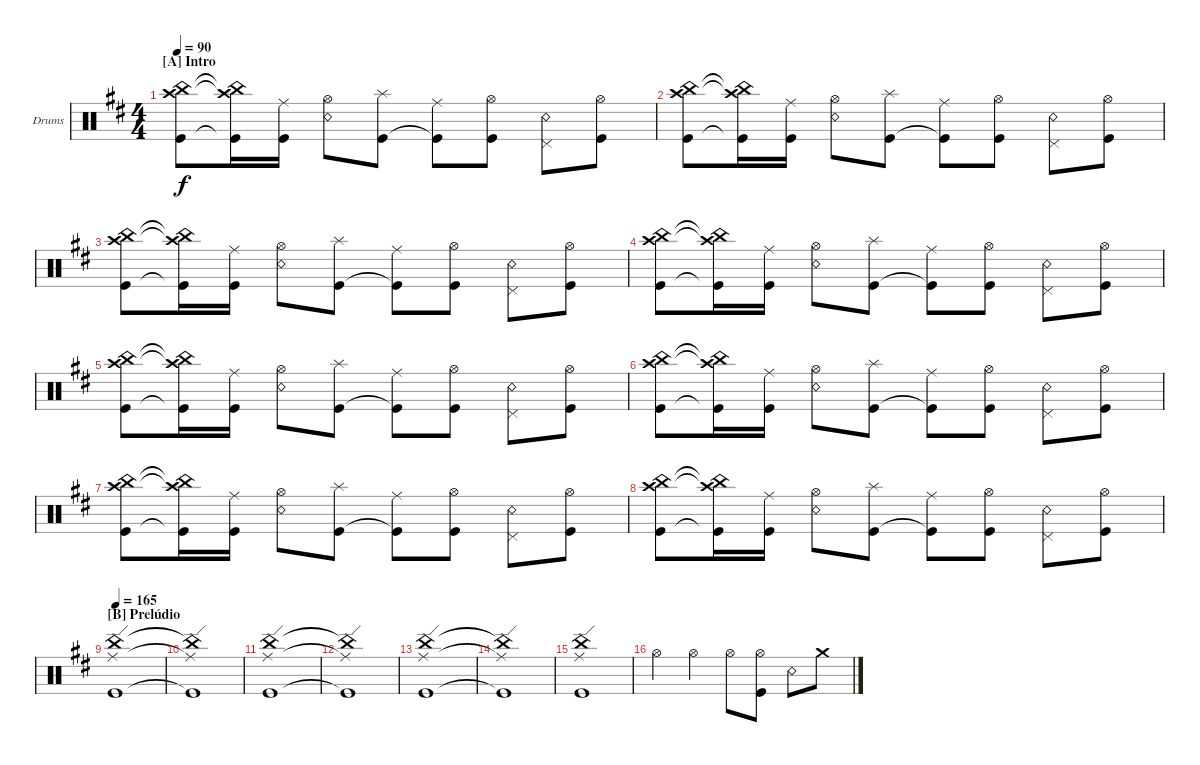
\defaultSystemsLayout 4
\bracketExtendMode groupsimilarinstruments
\firstSystemTrackNameOrientation horizontal
\otherSystemsTrackNameOrientation horizontal
\track ("Bateria" "Drums") {multiBarRest instrument percussion}
\staff {score}
\articulation defaults
\ts (4 4)
\section ("A" "Intro")
\tempo 90
\clef neutral
\ks d
("Kick (hit)" "China (hit)" "Crash high (hit)").8{dy f} ("Kick (hit)"{t} "China (hit)"{t} "Crash high (hit)"{t}).16 ("Kick (hit)" "Ride (middle)").16 ("Snare (rim shot)" "Hi-Hat (open)").8 ("Kick (hit)" "Splash (hit)").8 ("Kick (hit)"{t} "Ride (middle)").8 ("Kick (hit)" "Hi-Hat (open)").8 ("Snare (rim shot)" "Pedal Hi-Hat (hit)").8 ("Kick (hit)" "Hi-Hat (open)").8 |
("Kick (hit)" "China (hit)" "Crash high (hit)").8 ("Kick (hit)"{t} "China (hit)"{t} "Crash high (hit)"{t}).16 ("Kick (hit)" "Ride (middle)").16 ("Snare (rim shot)" "Hi-Hat (open)").8 ("Kick (hit)" "Splash (hit)").8 ("Kick (hit)"{t} "Ride (middle)").8 ("Kick (hit)" "Hi-Hat (open)").8 ("Snare (rim shot)" "Pedal Hi-Hat (hit)").8 ("Kick (hit)" "Hi-Hat (open)").8 |
("Kick (hit)" "China (hit)" "Crash high (hit)").8 ("Kick (hit)"{t} "China (hit)"{t} "Crash high (hit)"{t}).16 ("Kick (hit)" "Ride (middle)").16 ("Snare (rim shot)" "Hi-Hat (open)").8 ("Kick (hit)" "Splash (hit)").8 ("Kick (hit)"{t} "Ride (middle)").8 ("Kick (hit)" "Hi-Hat (open)").8 ("Snare (rim shot)" "Pedal Hi-Hat (hit)").8 ("Kick (hit)" "Hi-Hat (open)").8 |
("Kick (hit)" "China (hit)" "Crash high (hit)").8 ("Kick (hit)"{t} "China (hit)"{t} "Crash high (hit)"{t}).16 ("Kick (hit)" "Ride (middle)").16 ("Snare (rim shot)" "Hi-Hat (open)").8 ("Kick (hit)" "Splash (hit)").8 ("Kick (hit)"{t} "Ride (middle)").8 ("Kick (hit)" "Hi-Hat (open)").8 ("Snare (rim shot)" "Pedal Hi-Hat (hit)").8 ("Kick (hit)" "Hi-Hat (open)").8 |
("Kick (hit)" "China (hit)" "Crash high (hit)").8 ("Kick (hit)"{t} "China (hit)"{t} "Crash high (hit)"{t}).16 ("Kick (hit)" "Ride (middle)").16 ("Snare (rim shot)" "Hi-Hat (open)").8 ("Kick (hit)" "Splash (hit)").8 ("Kick (hit)"{t} "Ride (middle)").8 ("Kick (hit)" "Hi-Hat (open)").8 ("Snare (rim shot)" "Pedal Hi-Hat (hit)").8 ("Kick (hit)" "Hi-Hat (open)").8 |
("Kick (hit)" "China (hit)" "Crash high (hit)").8 ("Kick (hit)"{t} "China (hit)"{t} "Crash high (hit)"{t}).16 ("Kick (hit)" "Ride (middle)").16 ("Snare (rim shot)" "Hi-Hat (open)").8 ("Kick (hit)" "Splash (hit)").8 ("Kick (hit)"{t} "Ride (middle)").8 ("Kick (hit)" "Hi-Hat (open)").8 ("Snare (rim shot)" "Pedal Hi-Hat (hit)").8 ("Kick (hit)" "Hi-Hat (open)").8 |
("Kick (hit)" "China (hit)" "Crash high (hit)").8 ("Kick (hit)"{t} "China (hit)"{t} "Crash high (hit)"{t}).16 ("Kick (hit)" "Ride (middle)").16 ("Snare (rim shot)" "Hi-Hat (open)").8 ("Kick (hit)" "Splash (hit)").8 ("Kick (hit)"{t} "Ride (middle)").8 ("Kick (hit)" "Hi-Hat (open)").8 ("Snare (rim shot)" "Pedal Hi-Hat (hit)").8 ("Kick (hit)" "Hi-Hat (open)").8 |
("Kick (hit)" "China (hit)" "Crash high (hit)").8 ("Kick (hit)"{t} "China (hit)"{t} "Crash high (hit)"{t}).16 ("Kick (hit)" "Ride (middle)").16 ("Snare (rim shot)" "Hi-Hat (open)").8 ("Kick (hit)" "Splash (hit)").8 ("Kick (hit)"{t} "Ride (middle)").8 ("Kick (hit)" "Hi-Hat (open)").8 ("Snare (rim shot)" "Pedal Hi-Hat (hit)").8 ("Kick (hit)" "Hi-Hat (open)").8 |
\section ("B" "Prelúdio")
\tempo 165
("Kick (hit)" "China (hit)" "Ride (edge)").1 |
("Kick (hit)"{t} "China (hit)"{t} "Ride (edge)"{t}).1 |
("Kick (hit)" "China (hit)" "Ride (edge)").1 |
("Kick (hit)"{t} "China (hit)"{t} "Ride (edge)"{t}).1 |
("Kick (hit)" "China (hit)" "Ride (edge)").1 |
("Kick (hit)"{t} "China (hit)"{t} "Ride (edge)"{t}).1 |
("Kick (hit)" "China (hit)" "Ride (edge)").1 |
"Hi-Hat (open)".4 "Hi-Hat (open)".4 "Hi-Hat (open)".8 ("Kick (hit)" "Hi-Hat (open)").8 "Snare (rim shot)".8 "Crash medium (hit)".8
